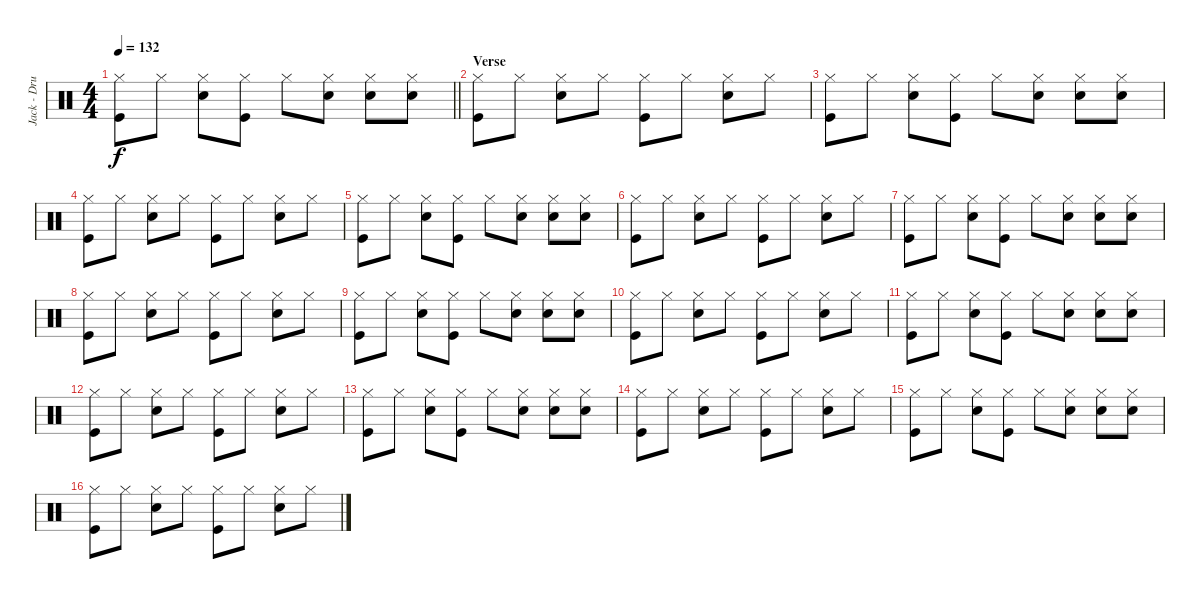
\track ("Jack - Drums" "Jack - Dru") {instrument percussion}
\staff {score}
\articulation defaults
\ts (4 4)
\tempo 132
\clef neutral
\barLineRight lightlight
\ks c
("Hi-Hat (closed)" "Kick (hit)").8{dy f} "Hi-Hat (closed)".8 ("Hi-Hat (closed)" "Snare (hit) 2").8 ("Hi-Hat (closed)" "Kick (hit)").8 "Hi-Hat (closed)".8 ("Hi-Hat (closed)" "Snare (hit) 2").8 ("Hi-Hat (closed)" "Snare (hit) 2").8 ("Hi-Hat (closed)" "Snare (hit) 2").8 |
\section ("" "Verse")
("Hi-Hat (closed)" "Kick (hit)").8 "Hi-Hat (closed)".8 ("Hi-Hat (closed)" "Snare (hit) 2").8 "Hi-Hat (closed)".8 ("Hi-Hat (closed)" "Kick (hit)").8 "Hi-Hat (closed)".8 ("Hi-Hat (closed)" "Snare (hit) 2").8 "Hi-Hat (closed)".8 |
("Hi-Hat (closed)" "Kick (hit)").8 "Hi-Hat (closed)".8 ("Hi-Hat (closed)" "Snare (hit) 2").8 ("Hi-Hat (closed)" "Kick (hit)").8 "Hi-Hat (closed)".8 ("Hi-Hat (closed)" "Snare (hit) 2").8 ("Hi-Hat (closed)" "Snare (hit) 2").8 ("Hi-Hat (closed)" "Snare (hit) 2").8 |
("Hi-Hat (closed)" "Kick (hit)").8 "Hi-Hat (closed)".8 ("Hi-Hat (closed)" "Snare (hit) 2").8 "Hi-Hat (closed)".8 ("Hi-Hat (closed)" "Kick (hit)").8 "Hi-Hat (closed)".8 ("Hi-Hat (closed)" "Snare (hit) 2").8 "Hi-Hat (closed)".8 |
("Hi-Hat (closed)" "Kick (hit)").8 "Hi-Hat (closed)".8 ("Hi-Hat (closed)" "Snare (hit) 2").8 ("Hi-Hat (closed)" "Kick (hit)").8 "Hi-Hat (closed)".8 ("Hi-Hat (closed)" "Snare (hit) 2").8 ("Hi-Hat (closed)" "Snare (hit) 2").8 ("Hi-Hat (closed)" "Snare (hit) 2").8 |
("Hi-Hat (closed)" "Kick (hit)").8 "Hi-Hat (closed)".8 ("Hi-Hat (closed)" "Snare (hit) 2").8 "Hi-Hat (closed)".8 ("Hi-Hat (closed)" "Kick (hit)").8 "Hi-Hat (closed)".8 ("Hi-Hat (closed)" "Snare (hit) 2").8 "Hi-Hat (closed)".8 |
("Hi-Hat (closed)" "Kick (hit)").8 "Hi-Hat (closed)".8 ("Hi-Hat (closed)" "Snare (hit) 2").8 ("Hi-Hat (closed)" "Kick (hit)").8 "Hi-Hat (closed)".8 ("Hi-Hat (closed)" "Snare (hit) 2").8 ("Hi-Hat (closed)" "Snare (hit) 2").8 ("Hi-Hat (closed)" "Snare (hit) 2").8 |
("Hi-Hat (closed)" "Kick (hit)").8 "Hi-Hat (closed)".8 ("Hi-Hat (closed)" "Snare (hit) 2").8 "Hi-Hat (closed)".8 ("Hi-Hat (closed)" "Kick (hit)").8 "Hi-Hat (closed)".8 ("Hi-Hat (closed)" "Snare (hit) 2").8 "Hi-Hat (closed)".8 |
("Hi-Hat (closed)" "Kick (hit)").8 "Hi-Hat (closed)".8 ("Hi-Hat (closed)" "Snare (hit) 2").8 ("Hi-Hat (closed)" "Kick (hit)").8 "Hi-Hat (closed)".8 ("Hi-Hat (closed)" "Snare (hit) 2").8 ("Hi-Hat (closed)" "Snare (hit) 2").8 ("Hi-Hat (closed)" "Snare (hit) 2").8 |
("Hi-Hat (closed)" "Kick (hit)").8 "Hi-Hat (closed)".8 ("Hi-Hat (closed)" "Snare (hit) 2").8 "Hi-Hat (closed)".8 ("Hi-Hat (closed)" "Kick (hit)").8 "Hi-Hat (closed)".8 ("Hi-Hat (closed)" "Snare (hit) 2").8 "Hi-Hat (closed)".8 |
("Hi-Hat (closed)" "Kick (hit)").8 "Hi-Hat (closed)".8 ("Hi-Hat (closed)" "Snare (hit) 2").8 ("Hi-Hat (closed)" "Kick (hit)").8 "Hi-Hat (closed)".8 ("Hi-Hat (closed)" "Snare (hit) 2").8 ("Hi-Hat (closed)" "Snare (hit) 2").8 ("Hi-Hat (closed)" "Snare (hit) 2").8 |
("Hi-Hat (closed)" "Kick (hit)").8 "Hi-Hat (closed)".8 ("Hi-Hat (closed)" "Snare (hit) 2").8 "Hi-Hat (closed)".8 ("Hi-Hat (closed)" "Kick (hit)").8 "Hi-Hat (closed)".8 ("Hi-Hat (closed)" "Snare (hit) 2").8 "Hi-Hat (closed)".8 |
("Hi-Hat (closed)" "Kick (hit)").8 "Hi-Hat (closed)".8 ("Hi-Hat (closed)" "Snare (hit) 2").8 ("Hi-Hat (closed)" "Kick (hit)").8 "Hi-Hat (closed)".8 ("Hi-Hat (closed)" "Snare (hit) 2").8 ("Hi-Hat (closed)" "Snare (hit) 2").8 ("Hi-Hat (closed)" "Snare (hit) 2").8 |
("Hi-Hat (closed)" "Kick (hit)").8 "Hi-Hat (closed)".8 ("Hi-Hat (closed)" "Snare (hit) 2").8 "Hi-Hat (closed)".8 ("Hi-Hat (closed)" "Kick (hit)").8 "Hi-Hat (closed)".8 ("Hi-Hat (closed)" "Snare (hit) 2").8 "Hi-Hat (closed)".8 |
("Hi-Hat (closed)" "Kick (hit)").8 "Hi-Hat (closed)".8 ("Hi-Hat (closed)" "Snare (hit) 2").8 ("Hi-Hat (closed)" "Kick (hit)").8 "Hi-Hat (closed)".8 ("Hi-Hat (closed)" "Snare (hit) 2").8 ("Hi-Hat (closed)" "Snare (hit) 2").8 ("Hi-Hat (closed)" "Snare (hit) 2").8 |
("Hi-Hat (closed)" "Kick (hit)").8 "Hi-Hat (closed)".8 ("Hi-Hat (closed)" "Snare (hit) 2").8 "Hi-Hat (closed)".8 ("Hi-Hat (closed)" "Kick (hit)").8 "Hi-Hat (closed)".8 ("Hi-Hat (closed)" "Snare (hit) 2").8 "Hi-Hat (closed)".8
